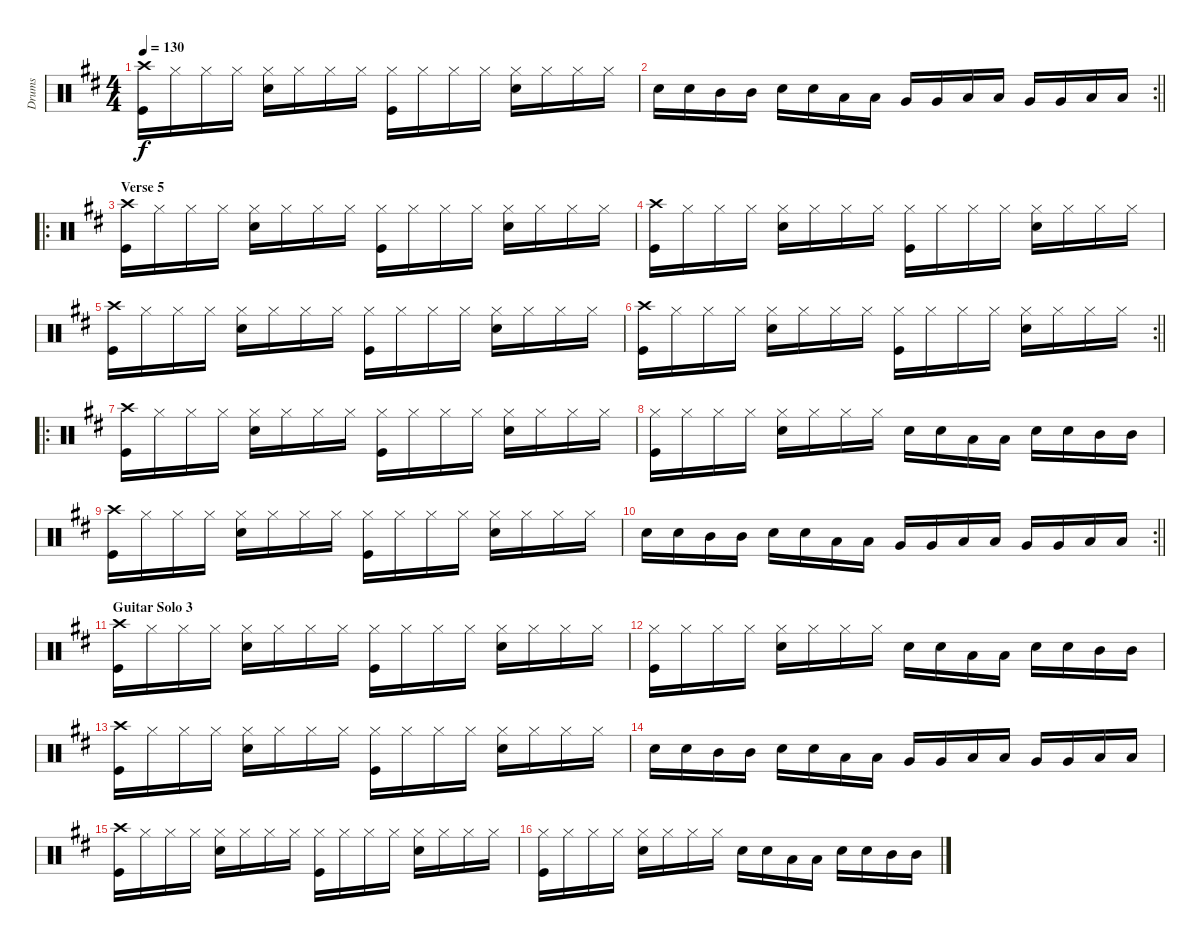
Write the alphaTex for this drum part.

\track ("Drums" "Drums") {instrument percussion}
\staff {score}
\articulation defaults
\ts (4 4)
\tempo 130
\clef neutral
\ks d
("Crash high (hit)" "Kick (hit)").16{dy f} "Hi-Hat (closed)".16 "Hi-Hat (closed)".16 "Hi-Hat (closed)".16 ("Hi-Hat (closed)" "Snare (hit) 2").16 "Hi-Hat (closed)".16 "Hi-Hat (closed)".16 "Hi-Hat (closed)".16 ("Hi-Hat (closed)" "Kick (hit)").16 "Hi-Hat (closed)".16 "Hi-Hat (closed)".16 "Hi-Hat (closed)".16 ("Hi-Hat (closed)" "Snare (hit) 2").16 "Hi-Hat (closed)".16 "Hi-Hat (closed)".16 "Hi-Hat (closed)".16 |
\rc 2
\barLineRight lightlight "Snare (hit) 2".16 "Snare (hit) 2".16 "Mid Tom (hit)".16 "Mid Tom (hit)".16 "Snare (hit) 2".16 "Snare (hit) 2".16 "Low Tom (hit)".16 "Low Tom (hit)".16 "Very Low Tom (hit)".16 "Very Low Tom (hit)".16 "Low Floor Tom (hit)".16 "Low Floor Tom (hit)".16 "Very Low Tom (hit)".16 "Very Low Tom (hit)".16 "Low Floor Tom (hit)".16 "Low Floor Tom (hit)".16
|
\ro
\section ("" "Verse 5")
("Crash high (hit)" "Kick (hit)").16 "Hi-Hat (closed)".16 "Hi-Hat (closed)".16 "Hi-Hat (closed)".16 ("Hi-Hat (closed)" "Snare (hit) 2").16 "Hi-Hat (closed)".16 "Hi-Hat (closed)".16 "Hi-Hat (closed)".16 ("Hi-Hat (closed)" "Kick (hit)").16 "Hi-Hat (closed)".16 "Hi-Hat (closed)".16 "Hi-Hat (closed)".16 ("Hi-Hat (closed)" "Snare (hit) 2").16 "Hi-Hat (closed)".16 "Hi-Hat (closed)".16 "Hi-Hat (closed)".16 |
("Crash high (hit)" "Kick (hit)").16 "Hi-Hat (closed)".16 "Hi-Hat (closed)".16 "Hi-Hat (closed)".16 ("Hi-Hat (closed)" "Snare (hit) 2").16 "Hi-Hat (closed)".16 "Hi-Hat (closed)".16 "Hi-Hat (closed)".16 ("Hi-Hat (closed)" "Kick (hit)").16 "Hi-Hat (closed)".16 "Hi-Hat (closed)".16 "Hi-Hat (closed)".16 ("Hi-Hat (closed)" "Snare (hit) 2").16 "Hi-Hat (closed)".16 "Hi-Hat (closed)".16 "Hi-Hat (closed)".16 |
("Crash high (hit)" "Kick (hit)").16 "Hi-Hat (closed)".16 "Hi-Hat (closed)".16 "Hi-Hat (closed)".16 ("Hi-Hat (closed)" "Snare (hit) 2").16 "Hi-Hat (closed)".16 "Hi-Hat (closed)".16 "Hi-Hat (closed)".16 ("Hi-Hat (closed)" "Kick (hit)").16 "Hi-Hat (closed)".16 "Hi-Hat (closed)".16 "Hi-Hat (closed)".16 ("Hi-Hat (closed)" "Snare (hit) 2").16 "Hi-Hat (closed)".16 "Hi-Hat (closed)".16 "Hi-Hat (closed)".16 |
\rc 2
\barLineRight lightlight
("Crash high (hit)" "Kick (hit)").16 "Hi-Hat (closed)".16 "Hi-Hat (closed)".16 "Hi-Hat (closed)".16 ("Hi-Hat (closed)" "Snare (hit) 2").16 "Hi-Hat (closed)".16 "Hi-Hat (closed)".16 "Hi-Hat (closed)".16 ("Hi-Hat (closed)" "Kick (hit)").16 "Hi-Hat (closed)".16 "Hi-Hat (closed)".16 "Hi-Hat (closed)".16 ("Hi-Hat (closed)" "Snare (hit) 2").16 "Hi-Hat (closed)".16 "Hi-Hat (closed)".16 "Hi-Hat (closed)".16 |
\ro
("Crash high (hit)" "Kick (hit)").16 "Hi-Hat (closed)".16 "Hi-Hat (closed)".16 "Hi-Hat (closed)".16 ("Hi-Hat (closed)" "Snare (hit) 2").16 "Hi-Hat (closed)".16 "Hi-Hat (closed)".16 "Hi-Hat (closed)".16 ("Hi-Hat (closed)" "Kick (hit)").16 "Hi-Hat (closed)".16 "Hi-Hat (closed)".16 "Hi-Hat (closed)".16 ("Hi-Hat (closed)" "Snare (hit) 2").16 "Hi-Hat (closed)".16 "Hi-Hat (closed)".16 "Hi-Hat (closed)".16 |
("Hi-Hat (closed)" "Kick (hit)").16 "Hi-Hat (closed)".16 "Hi-Hat (closed)".16 "Hi-Hat (closed)".16 ("Hi-Hat (closed)" "Snare (hit) 2").16 "Hi-Hat (closed)".16 "Hi-Hat (closed)".16 "Hi-Hat (closed)".16 "Snare (hit) 2".16 "Snare (hit) 2".16 "Low Tom (hit)".16 "Low Tom (hit)".16 "Snare (hit) 2".16 "Snare (hit) 2".16 "Mid Tom (hit)".16 "Mid Tom (hit)".16 |
("Crash high (hit)" "Kick (hit)").16 "Hi-Hat (closed)".16 "Hi-Hat (closed)".16 "Hi-Hat (closed)".16 ("Hi-Hat (closed)" "Snare (hit) 2").16 "Hi-Hat (closed)".16 "Hi-Hat (closed)".16 "Hi-Hat (closed)".16 ("Hi-Hat (closed)" "Kick (hit)").16 "Hi-Hat (closed)".16 "Hi-Hat (closed)".16 "Hi-Hat (closed)".16 ("Hi-Hat (closed)" "Snare (hit) 2").16 "Hi-Hat (closed)".16 "Hi-Hat (closed)".16 "Hi-Hat (closed)".16 |
\rc 2
\barLineRight lightlight "Snare (hit) 2".16 "Snare (hit) 2".16 "Mid Tom (hit)".16 "Mid Tom (hit)".16 "Snare (hit) 2".16 "Snare (hit) 2".16 "Low Tom (hit)".16 "Low Tom (hit)".16 "Very Low Tom (hit)".16 "Very Low Tom (hit)".16 "Low Floor Tom (hit)".16 "Low Floor Tom (hit)".16 "Very Low Tom (hit)".16 "Very Low Tom (hit)".16 "Low Floor Tom (hit)".16 "Low Floor Tom (hit)".16
|
\section ("" "Guitar Solo 3")
("Crash high (hit)" "Kick (hit)").16 "Hi-Hat (closed)".16 "Hi-Hat (closed)".16 "Hi-Hat (closed)".16 ("Hi-Hat (closed)" "Snare (hit) 2").16 "Hi-Hat (closed)".16 "Hi-Hat (closed)".16 "Hi-Hat (closed)".16 ("Hi-Hat (closed)" "Kick (hit)").16 "Hi-Hat (closed)".16 "Hi-Hat (closed)".16 "Hi-Hat (closed)".16 ("Hi-Hat (closed)" "Snare (hit) 2").16 "Hi-Hat (closed)".16 "Hi-Hat (closed)".16 "Hi-Hat (closed)".16 |
("Hi-Hat (closed)" "Kick (hit)").16 "Hi-Hat (closed)".16 "Hi-Hat (closed)".16 "Hi-Hat (closed)".16 ("Hi-Hat (closed)" "Snare (hit) 2").16 "Hi-Hat (closed)".16 "Hi-Hat (closed)".16 "Hi-Hat (closed)".16 "Snare (hit) 2".16 "Snare (hit) 2".16 "Low Tom (hit)".16 "Low Tom (hit)".16 "Snare (hit) 2".16 "Snare (hit) 2".16 "Mid Tom (hit)".16 "Mid Tom (hit)".16 |
("Crash high (hit)" "Kick (hit)").16 "Hi-Hat (closed)".16 "Hi-Hat (closed)".16 "Hi-Hat (closed)".16 ("Hi-Hat (closed)" "Snare (hit) 2").16 "Hi-Hat (closed)".16 "Hi-Hat (closed)".16 "Hi-Hat (closed)".16 ("Hi-Hat (closed)" "Kick (hit)").16 "Hi-Hat (closed)".16 "Hi-Hat (closed)".16 "Hi-Hat (closed)".16 ("Hi-Hat (closed)" "Snare (hit) 2").16 "Hi-Hat (closed)".16 "Hi-Hat (closed)".16 "Hi-Hat (closed)".16 |
"Snare (hit) 2".16 "Snare (hit) 2".16 "Mid Tom (hit)".16 "Mid Tom (hit)".16 "Snare (hit) 2".16 "Snare (hit) 2".16 "Low Tom (hit)".16 "Low Tom (hit)".16 "Very Low Tom (hit)".16 "Very Low Tom (hit)".16 "Low Floor Tom (hit)".16 "Low Floor Tom (hit)".16 "Very Low Tom (hit)".16 "Very Low Tom (hit)".16 "Low Floor Tom (hit)".16 "Low Floor Tom (hit)".16 |
("Crash high (hit)" "Kick (hit)").16 "Hi-Hat (closed)".16 "Hi-Hat (closed)".16 "Hi-Hat (closed)".16 ("Hi-Hat (closed)" "Snare (hit) 2").16 "Hi-Hat (closed)".16 "Hi-Hat (closed)".16 "Hi-Hat (closed)".16 ("Hi-Hat (closed)" "Kick (hit)").16 "Hi-Hat (closed)".16 "Hi-Hat (closed)".16 "Hi-Hat (closed)".16 ("Hi-Hat (closed)" "Snare (hit) 2").16 "Hi-Hat (closed)".16 "Hi-Hat (closed)".16 "Hi-Hat (closed)".16 |
("Hi-Hat (closed)" "Kick (hit)").16 "Hi-Hat (closed)".16 "Hi-Hat (closed)".16 "Hi-Hat (closed)".16 ("Hi-Hat (closed)" "Snare (hit) 2").16 "Hi-Hat (closed)".16 "Hi-Hat (closed)".16 "Hi-Hat (closed)".16 "Snare (hit) 2".16 "Snare (hit) 2".16 "Low Tom (hit)".16 "Low Tom (hit)".16 "Snare (hit) 2".16 "Snare (hit) 2".16 "Mid Tom (hit)".16 "Mid Tom (hit)".16
